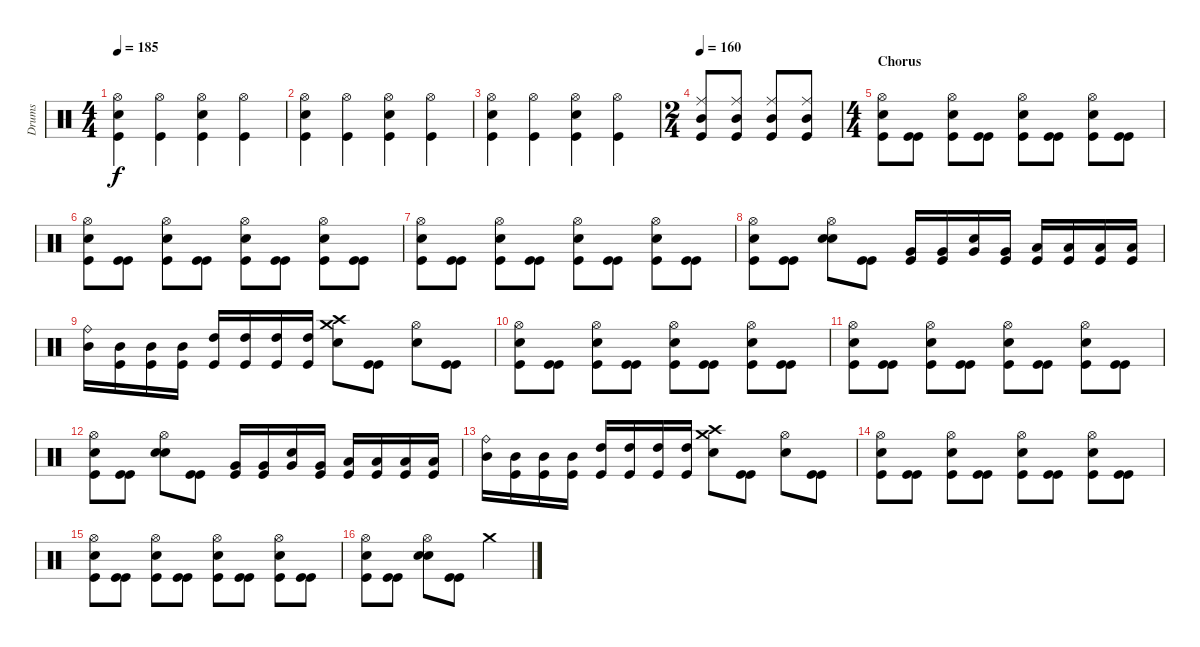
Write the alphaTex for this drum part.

\track ("Drums" "Drums") {instrument percussion}
\staff {score}
\articulation defaults
\ts (4 4)
\tempo 185
\clef neutral
\ks c
("Hi-Hat (open)" "Kick (hit)" "Snare (hit) 2").4{dy f} ("Hi-Hat (open)" "Kick (hit)").4 ("Hi-Hat (open)" "Kick (hit)" "Snare (hit) 2").4 ("Hi-Hat (open)" "Kick (hit)").4 |
("Hi-Hat (open)" "Kick (hit)" "Snare (hit) 2").4 ("Hi-Hat (open)" "Kick (hit)").4 ("Hi-Hat (open)" "Kick (hit)" "Snare (hit) 2").4 ("Hi-Hat (open)" "Kick (hit)").4 |
("Hi-Hat (open)" "Kick (hit)" "Snare (hit) 2").4 ("Hi-Hat (open)" "Kick (hit)").4 ("Hi-Hat (open)" "Kick (hit)" "Snare (hit) 2").4 ("Hi-Hat (open)" "Kick (hit)").4 |
\ts (2 4)
\tempo 160
("Ride (middle)" "Mid Tom (hit)" "Kick (hit)").8 ("Ride (middle)" "Mid Tom (hit)" "Kick (hit)").8 ("Ride (middle)" "Mid Tom (hit)" "Kick (hit)").8 ("Ride (middle)" "Mid Tom (hit)" "Kick (hit)").8 |
\ts (4 4)
\section ("" "Chorus")
("Hi-Hat (open)" "Kick (hit)" "Snare (hit) 2").8 ("Kick (hit)" "Kick (hit)").8 ("Hi-Hat (open)" "Snare (hit) 2" "Kick (hit)").8 ("Kick (hit)" "Kick (hit)").8 ("Hi-Hat (open)" "Kick (hit)" "Snare (hit) 2").8 ("Kick (hit)" "Kick (hit)").8 ("Hi-Hat (open)" "Snare (hit) 2" "Kick (hit)").8 ("Kick (hit)" "Kick (hit)").8 |
("Hi-Hat (open)" "Kick (hit)" "Snare (hit) 2").8 ("Kick (hit)" "Kick (hit)").8 ("Hi-Hat (open)" "Snare (hit) 2" "Kick (hit)").8 ("Kick (hit)" "Kick (hit)").8 ("Hi-Hat (open)" "Kick (hit)" "Snare (hit) 2").8 ("Kick (hit)" "Kick (hit)").8 ("Hi-Hat (open)" "Snare (hit) 2" "Kick (hit)").8 ("Kick (hit)" "Kick (hit)").8 |
("Hi-Hat (open)" "Kick (hit)" "Snare (hit) 2").8 ("Kick (hit)" "Kick (hit)").8 ("Hi-Hat (open)" "Snare (hit) 2" "Kick (hit)").8 ("Kick (hit)" "Kick (hit)").8 ("Hi-Hat (open)" "Kick (hit)" "Snare (hit) 2").8 ("Kick (hit)" "Kick (hit)").8 ("Hi-Hat (open)" "Snare (hit) 2" "Kick (hit)").8 ("Kick (hit)" "Kick (hit)").8 |
("Hi-Hat (open)" "Kick (hit)" "Snare (hit) 2").8 ("Kick (hit)" "Kick (hit)").8 ("Hi-Hat (open)" "Snare (hit) 2" "Snare (hit) 2").8 ("Kick (hit)" "Kick (hit)").8 ("Very Low Tom (hit)" "Kick (hit)").16 ("Very Low Tom (hit)" "Kick (hit)").16 ("Very Low Tom (hit)" "Snare (hit) 2").16 ("Very Low Tom (hit)" "Kick (hit)").16 ("Low Tom (hit)" "Kick (hit)").16 ("Low Tom (hit)" "Kick (hit)").16 ("Low Tom (hit)" "Kick (hit)").16 ("Low Tom (hit)" "Kick (hit)").16 |
("Mid Tom (hit)" "Ride (bell)").16 ("Mid Tom (hit)" "Kick (hit)").16 ("Mid Tom (hit)" "Kick (hit)").16 ("Mid Tom (hit)" "Kick (hit)").16 ("High Tom (hit)" "Kick (hit)").16 ("High Tom (hit)" "Kick (hit)").16 ("High Tom (hit)" "Kick (hit)").16 ("High Tom (hit)" "Kick (hit)").16 ("Crash high (hit)" "Snare (hit) 2" "Crash medium (hit)").8 ("Kick (hit)" "Kick (hit)").8 ("Hi-Hat (open)" "Snare (hit) 2").8 ("Kick (hit)" "Kick (hit)").8 |
("Hi-Hat (open)" "Kick (hit)" "Snare (hit) 2").8 ("Kick (hit)" "Kick (hit)").8 ("Hi-Hat (open)" "Snare (hit) 2" "Kick (hit)").8 ("Kick (hit)" "Kick (hit)").8 ("Hi-Hat (open)" "Kick (hit)" "Snare (hit) 2").8 ("Kick (hit)" "Kick (hit)").8 ("Hi-Hat (open)" "Snare (hit) 2" "Kick (hit)").8 ("Kick (hit)" "Kick (hit)").8 |
("Hi-Hat (open)" "Kick (hit)" "Snare (hit) 2").8 ("Kick (hit)" "Kick (hit)").8 ("Hi-Hat (open)" "Snare (hit) 2" "Kick (hit)").8 ("Kick (hit)" "Kick (hit)").8 ("Hi-Hat (open)" "Kick (hit)" "Snare (hit) 2").8 ("Kick (hit)" "Kick (hit)").8 ("Hi-Hat (open)" "Snare (hit) 2" "Kick (hit)").8 ("Kick (hit)" "Kick (hit)").8 |
("Hi-Hat (open)" "Kick (hit)" "Snare (hit) 2").8 ("Kick (hit)" "Kick (hit)").8 ("Hi-Hat (open)" "Snare (hit) 2" "Snare (hit) 2").8 ("Kick (hit)" "Kick (hit)").8 ("Very Low Tom (hit)" "Kick (hit)").16 ("Very Low Tom (hit)" "Kick (hit)").16 ("Very Low Tom (hit)" "Snare (hit) 2").16 ("Very Low Tom (hit)" "Kick (hit)").16 ("Low Tom (hit)" "Kick (hit)").16 ("Low Tom (hit)" "Kick (hit)").16 ("Low Tom (hit)" "Kick (hit)").16 ("Low Tom (hit)" "Kick (hit)").16 |
("Mid Tom (hit)" "Ride (bell)").16 ("Mid Tom (hit)" "Kick (hit)").16 ("Mid Tom (hit)" "Kick (hit)").16 ("Mid Tom (hit)" "Kick (hit)").16 ("High Tom (hit)" "Kick (hit)").16 ("High Tom (hit)" "Kick (hit)").16 ("High Tom (hit)" "Kick (hit)").16 ("High Tom (hit)" "Kick (hit)").16 ("Crash high (hit)" "Snare (hit) 2" "Crash medium (hit)").8 ("Kick (hit)" "Kick (hit)").8 ("Hi-Hat (open)" "Snare (hit) 2").8 ("Kick (hit)" "Kick (hit)").8 |
("Hi-Hat (open)" "Kick (hit)" "Snare (hit) 2").8 ("Kick (hit)" "Kick (hit)").8 ("Hi-Hat (open)" "Snare (hit) 2" "Kick (hit)").8 ("Kick (hit)" "Kick (hit)").8 ("Hi-Hat (open)" "Kick (hit)" "Snare (hit) 2").8 ("Kick (hit)" "Kick (hit)").8 ("Hi-Hat (open)" "Snare (hit) 2" "Kick (hit)").8 ("Kick (hit)" "Kick (hit)").8 |
("Hi-Hat (open)" "Kick (hit)" "Snare (hit) 2").8 ("Kick (hit)" "Kick (hit)").8 ("Hi-Hat (open)" "Snare (hit) 2" "Kick (hit)").8 ("Kick (hit)" "Kick (hit)").8 ("Hi-Hat (open)" "Kick (hit)" "Snare (hit) 2").8 ("Kick (hit)" "Kick (hit)").8 ("Hi-Hat (open)" "Snare (hit) 2" "Kick (hit)").8 ("Kick (hit)" "Kick (hit)").8 |
("Hi-Hat (open)" "Kick (hit)" "Snare (hit) 2").8 ("Kick (hit)" "Kick (hit)").8 ("Hi-Hat (open)" "Snare (hit) 2" "Snare (hit) 2").8 ("Kick (hit)" "Kick (hit)").8 "Crash medium (hit)".2
